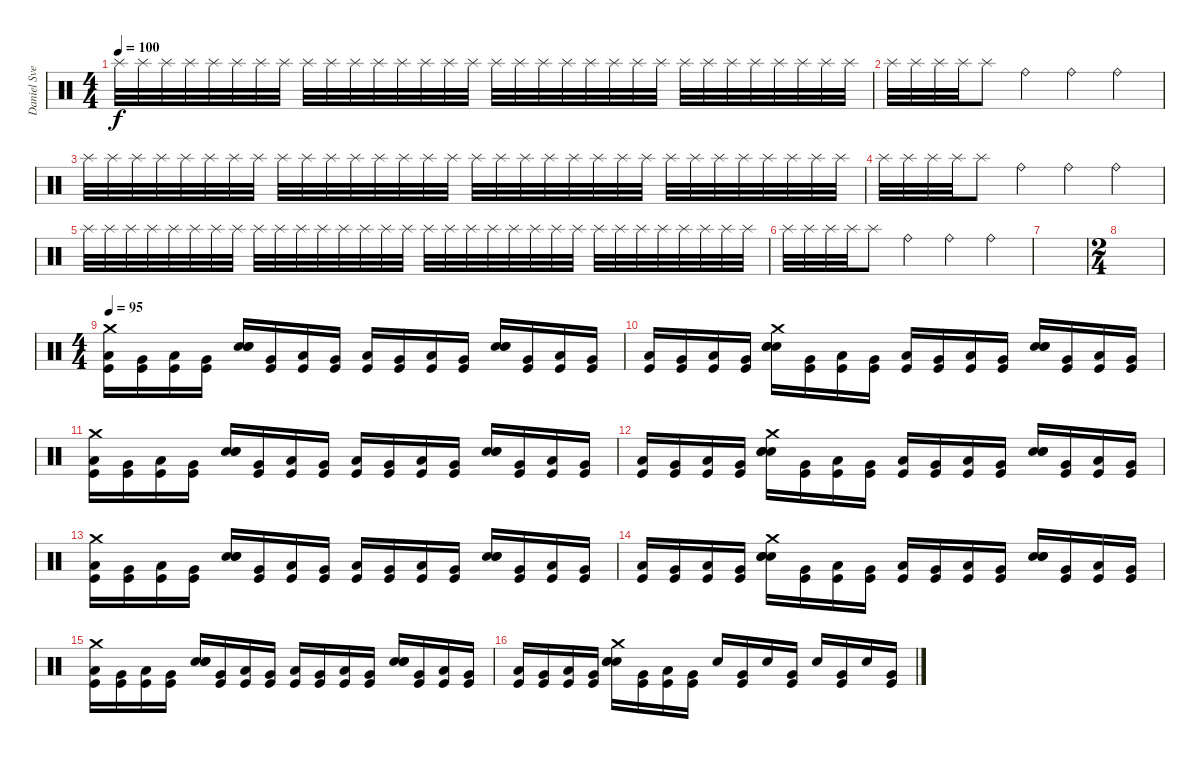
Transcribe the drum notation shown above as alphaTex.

\track ("Daniel Svensson" "Daniel Sve") {instrument percussion}
\staff {score}
\articulation defaults
\ts (4 4)
\tempo 100
\clef neutral
\ks c "Splash (hit)".32{dy f volume 1} "Splash (hit)".32{volume 1} "Splash (hit)".32{volume 2} "Splash (hit)".32{volume 2} "Splash (hit)".32{volume 3} "Splash (hit)".32{volume 3} "Splash (hit)".32{volume 4} "Splash (hit)".32{volume 4} "Splash (hit)".32{volume 5} "Splash (hit)".32{volume 5} "Splash (hit)".32{volume 6} "Splash (hit)".32{volume 6} "Splash (hit)".32{volume 7} "Splash (hit)".32{volume 7} "Splash (hit)".32{volume 8} "Splash (hit)".32{volume 8} "Splash (hit)".32{volume 9} "Splash (hit)".32{volume 9} "Splash (hit)".32{volume 10} "Splash (hit)".32{volume 11} "Splash (hit)".32{volume 11} "Splash (hit)".32{volume 12} "Splash (hit)".32{volume 12} "Splash (hit)".32{volume 13} "Splash (hit)".32{volume 13} "Splash (hit)".32{volume 14} "Splash (hit)".32{volume 14} "Splash (hit)".32{volume 14} "Splash (hit)".32{volume 15} "Splash (hit)".32{volume 15} "Splash (hit)".32{volume 16} "Splash (hit)".32{volume 16}
|
"Splash (hit)".32 "Splash (hit)".32 "Splash (hit)".32 "Splash (hit)".32 "Splash (hit)".8 "Ride (bell)".4 "Ride (bell)".4 "Ride (bell)".4 |
"Splash (hit)".32{volume 1} "Splash (hit)".32{volume 1} "Splash (hit)".32{volume 2} "Splash (hit)".32{volume 2} "Splash (hit)".32{volume 3} "Splash (hit)".32{volume 3} "Splash (hit)".32{volume 4} "Splash (hit)".32{volume 4} "Splash (hit)".32{volume 5} "Splash (hit)".32{volume 5} "Splash (hit)".32{volume 6} "Splash (hit)".32{volume 6} "Splash (hit)".32{volume 7} "Splash (hit)".32{volume 7} "Splash (hit)".32{volume 8} "Splash (hit)".32{volume 8} "Splash (hit)".32{volume 9} "Splash (hit)".32{volume 9} "Splash (hit)".32{volume 10} "Splash (hit)".32{volume 11} "Splash (hit)".32{volume 11} "Splash (hit)".32{volume 12} "Splash (hit)".32{volume 12} "Splash (hit)".32{volume 13} "Splash (hit)".32{volume 13} "Splash (hit)".32{volume 14} "Splash (hit)".32{volume 14} "Splash (hit)".32{volume 14} "Splash (hit)".32{volume 15} "Splash (hit)".32{volume 15} "Splash (hit)".32{volume 16} "Splash (hit)".32{volume 16} |
"Splash (hit)".32 "Splash (hit)".32 "Splash (hit)".32 "Splash (hit)".32 "Splash (hit)".8 "Ride (bell)".4 "Ride (bell)".4 "Ride (bell)".4 |
"Splash (hit)".32{volume 1} "Splash (hit)".32{volume 1} "Splash (hit)".32{volume 2} "Splash (hit)".32{volume 2} "Splash (hit)".32{volume 3} "Splash (hit)".32{volume 3} "Splash (hit)".32{volume 4} "Splash (hit)".32{volume 4} "Splash (hit)".32{volume 5} "Splash (hit)".32{volume 5} "Splash (hit)".32{volume 6} "Splash (hit)".32{volume 6} "Splash (hit)".32{volume 7} "Splash (hit)".32{volume 7} "Splash (hit)".32{volume 8} "Splash (hit)".32{volume 8} "Splash (hit)".32{volume 9} "Splash (hit)".32{volume 9} "Splash (hit)".32{volume 10} "Splash (hit)".32{volume 11} "Splash (hit)".32{volume 11} "Splash (hit)".32{volume 12} "Splash (hit)".32{volume 12} "Splash (hit)".32{volume 13} "Splash (hit)".32{volume 13} "Splash (hit)".32{volume 14} "Splash (hit)".32{volume 14} "Splash (hit)".32{volume 14} "Splash (hit)".32{volume 15} "Splash (hit)".32{volume 15} "Splash (hit)".32{volume 16} "Splash (hit)".32{volume 16} |
"Splash (hit)".32 "Splash (hit)".32 "Splash (hit)".32 "Splash (hit)".32 "Splash (hit)".8 "Ride (bell)".4 "Ride (bell)".4 "Ride (bell)".4 |
|
\ts (2 4)
|
\ts (4 4)
\tempo 95
("Crash medium (hit)" "Low Floor Tom (hit)" "Kick (hit)").16 ("Very Low Tom (hit)" "Kick (hit)").16 ("Low Floor Tom (hit)" "Kick (hit)").16 ("Very Low Tom (hit)" "Kick (hit)").16 ("Snare (hit) 2" "Snare (hit) 2" "Snare (hit) 2").16 ("Very Low Tom (hit)" "Kick (hit)").16 ("Low Floor Tom (hit)" "Kick (hit)").16 ("Very Low Tom (hit)" "Kick (hit)").16 ("Low Floor Tom (hit)" "Kick (hit)").16 ("Very Low Tom (hit)" "Kick (hit)").16 ("Low Floor Tom (hit)" "Kick (hit)").16 ("Very Low Tom (hit)" "Kick (hit)").16 ("Snare (hit) 2" "Snare (hit) 2" "Snare (hit) 2").16 ("Very Low Tom (hit)" "Kick (hit)").16 ("Low Floor Tom (hit)" "Kick (hit)").16 ("Very Low Tom (hit)" "Kick (hit)").16 |
("Low Floor Tom (hit)" "Kick (hit)").16 ("Very Low Tom (hit)" "Kick (hit)").16 ("Low Floor Tom (hit)" "Kick (hit)").16 ("Very Low Tom (hit)" "Kick (hit)").16 ("Crash medium (hit)" "Snare (hit) 2" "Snare (hit) 2" "Snare (hit) 2").16 ("Very Low Tom (hit)" "Kick (hit)").16 ("Low Floor Tom (hit)" "Kick (hit)").16 ("Very Low Tom (hit)" "Kick (hit)").16 ("Low Floor Tom (hit)" "Kick (hit)").16 ("Very Low Tom (hit)" "Kick (hit)").16 ("Low Floor Tom (hit)" "Kick (hit)").16 ("Very Low Tom (hit)" "Kick (hit)").16 ("Snare (hit) 2" "Snare (hit) 2" "Snare (hit) 2").16 ("Very Low Tom (hit)" "Kick (hit)").16 ("Low Floor Tom (hit)" "Kick (hit)").16 ("Very Low Tom (hit)" "Kick (hit)").16 |
("Crash medium (hit)" "Low Floor Tom (hit)" "Kick (hit)").16 ("Very Low Tom (hit)" "Kick (hit)").16 ("Low Floor Tom (hit)" "Kick (hit)").16 ("Very Low Tom (hit)" "Kick (hit)").16 ("Snare (hit) 2" "Snare (hit) 2" "Snare (hit) 2").16 ("Very Low Tom (hit)" "Kick (hit)").16 ("Low Floor Tom (hit)" "Kick (hit)").16 ("Very Low Tom (hit)" "Kick (hit)").16 ("Low Floor Tom (hit)" "Kick (hit)").16 ("Very Low Tom (hit)" "Kick (hit)").16 ("Low Floor Tom (hit)" "Kick (hit)").16 ("Very Low Tom (hit)" "Kick (hit)").16 ("Snare (hit) 2" "Snare (hit) 2" "Snare (hit) 2").16 ("Very Low Tom (hit)" "Kick (hit)").16 ("Low Floor Tom (hit)" "Kick (hit)").16 ("Very Low Tom (hit)" "Kick (hit)").16 |
("Low Floor Tom (hit)" "Kick (hit)").16 ("Very Low Tom (hit)" "Kick (hit)").16 ("Low Floor Tom (hit)" "Kick (hit)").16 ("Very Low Tom (hit)" "Kick (hit)").16 ("Crash medium (hit)" "Snare (hit) 2" "Snare (hit) 2" "Snare (hit) 2").16 ("Very Low Tom (hit)" "Kick (hit)").16 ("Low Floor Tom (hit)" "Kick (hit)").16 ("Very Low Tom (hit)" "Kick (hit)").16 ("Low Floor Tom (hit)" "Kick (hit)").16 ("Very Low Tom (hit)" "Kick (hit)").16 ("Low Floor Tom (hit)" "Kick (hit)").16 ("Very Low Tom (hit)" "Kick (hit)").16 ("Snare (hit) 2" "Snare (hit) 2" "Snare (hit) 2").16 ("Very Low Tom (hit)" "Kick (hit)").16 ("Low Floor Tom (hit)" "Kick (hit)").16 ("Very Low Tom (hit)" "Kick (hit)").16 |
("Crash medium (hit)" "Low Floor Tom (hit)" "Kick (hit)").16 ("Very Low Tom (hit)" "Kick (hit)").16 ("Low Floor Tom (hit)" "Kick (hit)").16 ("Very Low Tom (hit)" "Kick (hit)").16 ("Snare (hit) 2" "Snare (hit) 2" "Snare (hit) 2").16 ("Very Low Tom (hit)" "Kick (hit)").16 ("Low Floor Tom (hit)" "Kick (hit)").16 ("Very Low Tom (hit)" "Kick (hit)").16 ("Low Floor Tom (hit)" "Kick (hit)").16 ("Very Low Tom (hit)" "Kick (hit)").16 ("Low Floor Tom (hit)" "Kick (hit)").16 ("Very Low Tom (hit)" "Kick (hit)").16 ("Snare (hit) 2" "Snare (hit) 2" "Snare (hit) 2").16 ("Very Low Tom (hit)" "Kick (hit)").16 ("Low Floor Tom (hit)" "Kick (hit)").16 ("Very Low Tom (hit)" "Kick (hit)").16 |
("Low Floor Tom (hit)" "Kick (hit)").16 ("Very Low Tom (hit)" "Kick (hit)").16 ("Low Floor Tom (hit)" "Kick (hit)").16 ("Very Low Tom (hit)" "Kick (hit)").16 ("Crash medium (hit)" "Snare (hit) 2" "Snare (hit) 2" "Snare (hit) 2").16 ("Very Low Tom (hit)" "Kick (hit)").16 ("Low Floor Tom (hit)" "Kick (hit)").16 ("Very Low Tom (hit)" "Kick (hit)").16 ("Low Floor Tom (hit)" "Kick (hit)").16 ("Very Low Tom (hit)" "Kick (hit)").16 ("Low Floor Tom (hit)" "Kick (hit)").16 ("Very Low Tom (hit)" "Kick (hit)").16 ("Snare (hit) 2" "Snare (hit) 2" "Snare (hit) 2").16 ("Very Low Tom (hit)" "Kick (hit)").16 ("Low Floor Tom (hit)" "Kick (hit)").16 ("Very Low Tom (hit)" "Kick (hit)").16 |
("Crash medium (hit)" "Low Floor Tom (hit)" "Kick (hit)").16 ("Very Low Tom (hit)" "Kick (hit)").16 ("Low Floor Tom (hit)" "Kick (hit)").16 ("Very Low Tom (hit)" "Kick (hit)").16 ("Snare (hit) 2" "Snare (hit) 2" "Snare (hit) 2").16 ("Very Low Tom (hit)" "Kick (hit)").16 ("Low Floor Tom (hit)" "Kick (hit)").16 ("Very Low Tom (hit)" "Kick (hit)").16 ("Low Floor Tom (hit)" "Kick (hit)").16 ("Very Low Tom (hit)" "Kick (hit)").16 ("Low Floor Tom (hit)" "Kick (hit)").16 ("Very Low Tom (hit)" "Kick (hit)").16 ("Snare (hit) 2" "Snare (hit) 2" "Snare (hit) 2").16 ("Very Low Tom (hit)" "Kick (hit)").16 ("Low Floor Tom (hit)" "Kick (hit)").16 ("Very Low Tom (hit)" "Kick (hit)").16 |
("Low Floor Tom (hit)" "Kick (hit)").16 ("Very Low Tom (hit)" "Kick (hit)").16 ("Low Floor Tom (hit)" "Kick (hit)").16 ("Very Low Tom (hit)" "Kick (hit)").16 ("Crash medium (hit)" "Snare (hit) 2" "Snare (hit) 2" "Snare (hit) 2").16 ("Very Low Tom (hit)" "Kick (hit)").16 ("Low Floor Tom (hit)" "Kick (hit)").16 ("Very Low Tom (hit)" "Kick (hit)").16 "Snare (hit) 2".16 ("Very Low Tom (hit)" "Kick (hit)").16 "Snare (hit) 2".16 ("Very Low Tom (hit)" "Kick (hit)").16 "Snare (hit) 2".16 ("Very Low Tom (hit)" "Kick (hit)").16 "Snare (hit) 2".16 ("Very Low Tom (hit)" "Kick (hit)").16
